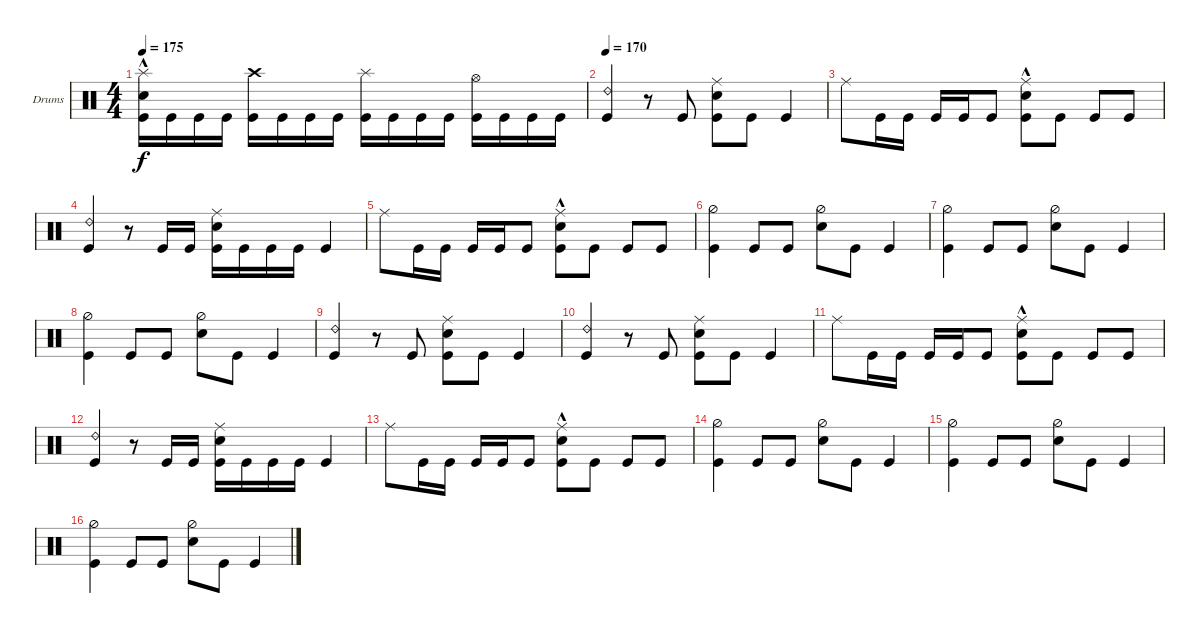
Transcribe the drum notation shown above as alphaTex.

\defaultSystemsLayout 4
\bracketExtendMode groupsimilarinstruments
\firstSystemTrackNameOrientation horizontal
\otherSystemsTrackNameOrientation horizontal
\track ("Drumkit" "Drums") {instrument percussion}
\staff {score}
\articulation defaults
\ts (4 4)
\tempo 175
\clef neutral
\scale
0.333333
\ks c
("Kick (hit)" "Snare (hit) 2"{hac} "Splash (hit)").16{dy f} "Kick (hit)".16 "Kick (hit)".16 "Kick (hit)".16 ("Kick (hit)" "Crash high (hit)").16 "Kick (hit)".16 "Kick (hit)".16 "Kick (hit)".16 ("Kick (hit)" "Splash (hit)").16 "Kick (hit)".16 "Kick (hit)".16 "Kick (hit)".16 ("Kick (hit)" "Hi-Hat (open)").16 "Kick (hit)".16 "Kick (hit)".16 "Kick (hit)".16 |
\tempo 170
\scale
0.333333 ("Ride (bell) 2" "Kick (hit)").4 r.8 "Kick (hit)".8 ("Kick (hit)" "Snare (hit) 2" "Ride (middle)").8 "Kick (hit)".8 "Kick (hit)".4 |
\scale
0.333333 "Ride (middle)".8 "Kick (hit)".16 "Kick (hit)".16 "Kick (hit)".16 "Kick (hit)".16 "Kick (hit)".8 ("Kick (hit)" "Snare (hit) 2"{hac} "Ride (middle)").8 "Kick (hit)".8 "Kick (hit)".8 "Kick (hit)".8 |
\scale
0.333333 ("Ride (bell) 2" "Kick (hit)").4 r.8 "Kick (hit)".16 "Kick (hit)".16 ("Kick (hit)" "Snare (hit) 2" "Ride (middle)").16 "Kick (hit)".16 "Kick (hit)".16 "Kick (hit)".16 "Kick (hit)".4 |
\scale
0.333333 "Ride (middle)".8 "Kick (hit)".16 "Kick (hit)".16 "Kick (hit)".16 "Kick (hit)".16 "Kick (hit)".8 ("Kick (hit)" "Snare (hit) 2"{hac} "Ride (middle)").8 "Kick (hit)".8 "Kick (hit)".8 "Kick (hit)".8 |
\scale
0.333333 ("Hi-Hat (half)" "Kick (hit)").4 "Kick (hit)".8 "Kick (hit)".8 ("Snare (hit) 2" "Hi-Hat (half)").8 "Kick (hit)".8 "Kick (hit)".4 |
("Hi-Hat (half)" "Kick (hit)").4 "Kick (hit)".8 "Kick (hit)".8 ("Snare (hit) 2" "Hi-Hat (half)").8 "Kick (hit)".8 "Kick (hit)".4 |
("Hi-Hat (half)" "Kick (hit)").4 "Kick (hit)".8 "Kick (hit)".8 ("Snare (hit) 2" "Hi-Hat (half)").8 "Kick (hit)".8 "Kick (hit)".4 |
("Ride (bell) 2" "Kick (hit)").4 r.8 "Kick (hit)".8 ("Kick (hit)" "Snare (hit) 2" "Ride (middle)").8 "Kick (hit)".8 "Kick (hit)".4 |
("Ride (bell) 2" "Kick (hit)").4 r.8 "Kick (hit)".8 ("Kick (hit)" "Snare (hit) 2" "Ride (middle)").8 "Kick (hit)".8 "Kick (hit)".4 |
"Ride (middle)".8 "Kick (hit)".16 "Kick (hit)".16 "Kick (hit)".16 "Kick (hit)".16 "Kick (hit)".8 ("Kick (hit)" "Snare (hit) 2"{hac} "Ride (middle)").8 "Kick (hit)".8 "Kick (hit)".8 "Kick (hit)".8 |
("Ride (bell) 2" "Kick (hit)").4 r.8 "Kick (hit)".16 "Kick (hit)".16 ("Kick (hit)" "Snare (hit) 2" "Ride (middle)").16 "Kick (hit)".16 "Kick (hit)".16 "Kick (hit)".16 "Kick (hit)".4 |
"Ride (middle)".8 "Kick (hit)".16 "Kick (hit)".16 "Kick (hit)".16 "Kick (hit)".16 "Kick (hit)".8 ("Kick (hit)" "Snare (hit) 2"{hac} "Ride (middle)").8 "Kick (hit)".8 "Kick (hit)".8 "Kick (hit)".8 |
("Hi-Hat (half)" "Kick (hit)").4 "Kick (hit)".8 "Kick (hit)".8 ("Snare (hit) 2" "Hi-Hat (half)").8 "Kick (hit)".8 "Kick (hit)".4 |
("Hi-Hat (half)" "Kick (hit)").4 "Kick (hit)".8 "Kick (hit)".8 ("Snare (hit) 2" "Hi-Hat (half)").8 "Kick (hit)".8 "Kick (hit)".4 |
("Hi-Hat (half)" "Kick (hit)").4 "Kick (hit)".8 "Kick (hit)".8 ("Snare (hit) 2" "Hi-Hat (half)").8 "Kick (hit)".8 "Kick (hit)".4
